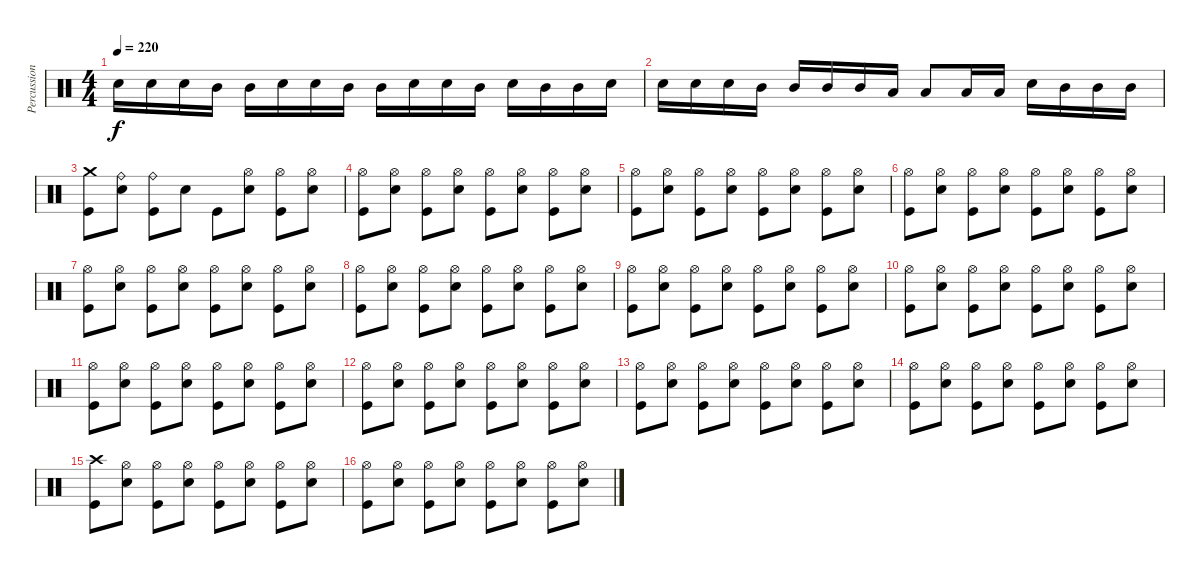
\track ("Percussions" "Percussion") {instrument percussion}
\staff {score}
\articulation defaults
\ts (4 4)
\tempo 220
\clef neutral
\ks c "Electric Snare (hit)".16{dy f} "Electric Snare (hit)".16 "Electric Snare (hit)".16 "Mid Tom (hit)".16 "Mid Tom (hit)".16 "Electric Snare (hit)".16 "Electric Snare (hit)".16 "Mid Tom (hit)".16 "Mid Tom (hit)".16 "Electric Snare (hit)".16 "Electric Snare (hit)".16 "Mid Tom (hit)".16 "Electric Snare (hit)".16 "Mid Tom (hit)".16 "Mid Tom (hit)".16 "Electric Snare (hit)".16
|
"Electric Snare (hit)".16 "Electric Snare (hit)".16 "Electric Snare (hit)".16 "Mid Tom (hit)".16 "Mid Tom (hit)".16 "Mid Tom (hit)".16 "Mid Tom (hit)".16 "Low Tom (hit)".16 "Low Tom (hit)".8 "Low Tom (hit)".16 "Low Tom (hit)".16 "Electric Snare (hit)".16 "Mid Tom (hit)".16 "Mid Tom (hit)".16 "Mid Tom (hit)".16 |
("Kick (hit)" "Crash medium (hit)").8 ("Electric Snare (hit)" "Ride (bell)").8 ("Kick (hit)" "Ride (bell)").8 "Electric Snare (hit)".8 "Kick (hit)".8 ("Electric Snare (hit)" "Hi-Hat (open)").8 ("Kick (hit)" "Hi-Hat (open)").8 ("Electric Snare (hit)" "Hi-Hat (open)").8 |
("Kick (hit)" "Hi-Hat (open)").8 ("Electric Snare (hit)" "Hi-Hat (open)").8 ("Kick (hit)" "Hi-Hat (open)").8 ("Electric Snare (hit)" "Hi-Hat (open)").8 ("Kick (hit)" "Hi-Hat (open)").8 ("Electric Snare (hit)" "Hi-Hat (open)").8 ("Kick (hit)" "Hi-Hat (open)").8 ("Electric Snare (hit)" "Hi-Hat (open)").8 |
("Kick (hit)" "Hi-Hat (open)").8 ("Electric Snare (hit)" "Hi-Hat (open)").8 ("Kick (hit)" "Hi-Hat (open)").8 ("Electric Snare (hit)" "Hi-Hat (open)").8 ("Kick (hit)" "Hi-Hat (open)").8 ("Electric Snare (hit)" "Hi-Hat (open)").8 ("Kick (hit)" "Hi-Hat (open)").8 ("Electric Snare (hit)" "Hi-Hat (open)").8 |
("Kick (hit)" "Hi-Hat (open)").8 ("Electric Snare (hit)" "Hi-Hat (open)").8 ("Kick (hit)" "Hi-Hat (open)").8 ("Electric Snare (hit)" "Hi-Hat (open)").8 ("Kick (hit)" "Hi-Hat (open)").8 ("Electric Snare (hit)" "Hi-Hat (open)").8 ("Kick (hit)" "Hi-Hat (open)").8 ("Electric Snare (hit)" "Hi-Hat (open)").8 |
("Kick (hit)" "Hi-Hat (open)").8 ("Electric Snare (hit)" "Hi-Hat (open)").8 ("Kick (hit)" "Hi-Hat (open)").8 ("Electric Snare (hit)" "Hi-Hat (open)").8 ("Kick (hit)" "Hi-Hat (open)").8 ("Electric Snare (hit)" "Hi-Hat (open)").8 ("Kick (hit)" "Hi-Hat (open)").8 ("Electric Snare (hit)" "Hi-Hat (open)").8 |
("Kick (hit)" "Hi-Hat (open)").8 ("Electric Snare (hit)" "Hi-Hat (open)").8 ("Kick (hit)" "Hi-Hat (open)").8 ("Electric Snare (hit)" "Hi-Hat (open)").8 ("Kick (hit)" "Hi-Hat (open)").8 ("Electric Snare (hit)" "Hi-Hat (open)").8 ("Kick (hit)" "Hi-Hat (open)").8 ("Electric Snare (hit)" "Hi-Hat (open)").8 |
("Kick (hit)" "Hi-Hat (open)").8 ("Electric Snare (hit)" "Hi-Hat (open)").8 ("Kick (hit)" "Hi-Hat (open)").8 ("Electric Snare (hit)" "Hi-Hat (open)").8 ("Kick (hit)" "Hi-Hat (open)").8 ("Electric Snare (hit)" "Hi-Hat (open)").8 ("Kick (hit)" "Hi-Hat (open)").8 ("Electric Snare (hit)" "Hi-Hat (open)").8 |
("Kick (hit)" "Hi-Hat (open)").8 ("Electric Snare (hit)" "Hi-Hat (open)").8 ("Kick (hit)" "Hi-Hat (open)").8 ("Electric Snare (hit)" "Hi-Hat (open)").8 ("Kick (hit)" "Hi-Hat (open)").8 ("Electric Snare (hit)" "Hi-Hat (open)").8 ("Kick (hit)" "Hi-Hat (open)").8 ("Electric Snare (hit)" "Hi-Hat (open)").8 |
("Kick (hit)" "Hi-Hat (open)").8 ("Electric Snare (hit)" "Hi-Hat (open)").8 ("Kick (hit)" "Hi-Hat (open)").8 ("Electric Snare (hit)" "Hi-Hat (open)").8 ("Kick (hit)" "Hi-Hat (open)").8 ("Electric Snare (hit)" "Hi-Hat (open)").8 ("Kick (hit)" "Hi-Hat (open)").8 ("Electric Snare (hit)" "Hi-Hat (open)").8 |
("Kick (hit)" "Hi-Hat (open)").8 ("Electric Snare (hit)" "Hi-Hat (open)").8 ("Kick (hit)" "Hi-Hat (open)").8 ("Electric Snare (hit)" "Hi-Hat (open)").8 ("Kick (hit)" "Hi-Hat (open)").8 ("Electric Snare (hit)" "Hi-Hat (open)").8 ("Kick (hit)" "Hi-Hat (open)").8 ("Electric Snare (hit)" "Hi-Hat (open)").8 |
("Kick (hit)" "Hi-Hat (open)").8 ("Electric Snare (hit)" "Hi-Hat (open)").8 ("Kick (hit)" "Hi-Hat (open)").8 ("Electric Snare (hit)" "Hi-Hat (open)").8 ("Kick (hit)" "Hi-Hat (open)").8 ("Electric Snare (hit)" "Hi-Hat (open)").8 ("Kick (hit)" "Hi-Hat (open)").8 ("Electric Snare (hit)" "Hi-Hat (open)").8 |
("Kick (hit)" "Hi-Hat (open)").8 ("Electric Snare (hit)" "Hi-Hat (open)").8 ("Kick (hit)" "Hi-Hat (open)").8 ("Electric Snare (hit)" "Hi-Hat (open)").8 ("Kick (hit)" "Hi-Hat (open)").8 ("Electric Snare (hit)" "Hi-Hat (open)").8 ("Kick (hit)" "Hi-Hat (open)").8 ("Electric Snare (hit)" "Hi-Hat (open)").8 |
("Kick (hit)" "Crash high (hit)").8 ("Electric Snare (hit)" "Hi-Hat (open)").8 ("Kick (hit)" "Hi-Hat (open)").8 ("Electric Snare (hit)" "Hi-Hat (open)").8 ("Kick (hit)" "Hi-Hat (open)").8 ("Electric Snare (hit)" "Hi-Hat (open)").8 ("Kick (hit)" "Hi-Hat (open)").8 ("Electric Snare (hit)" "Hi-Hat (open)").8 |
("Kick (hit)" "Hi-Hat (open)").8 ("Electric Snare (hit)" "Hi-Hat (open)").8 ("Kick (hit)" "Hi-Hat (open)").8 ("Electric Snare (hit)" "Hi-Hat (open)").8 ("Kick (hit)" "Hi-Hat (open)").8 ("Electric Snare (hit)" "Hi-Hat (open)").8 ("Kick (hit)" "Hi-Hat (open)").8 ("Electric Snare (hit)" "Hi-Hat (open)").8
